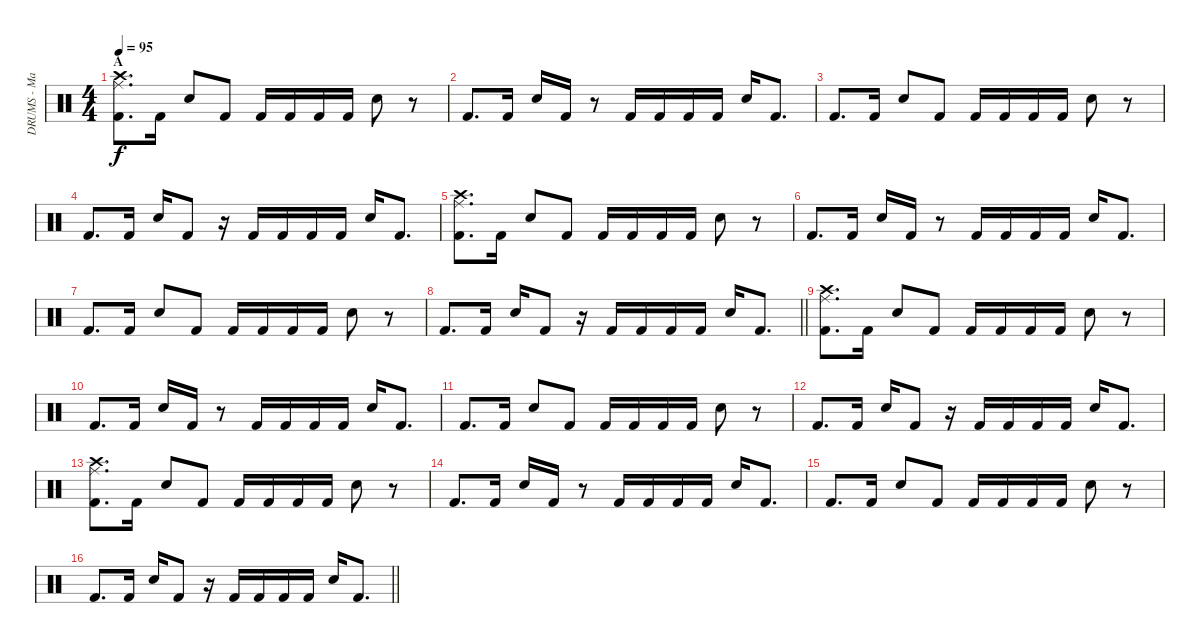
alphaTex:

\track ("DRUMS - Mario Duplantier" "DRUMS - Ma") {instrument percussion}
\staff {score}
\articulation defaults
\ts (4 4)
\section ("" "A")
\tempo 95
\clef neutral
\ks c
("Crash high (hit)" "Ride (middle)" "Kick (hit) 2").8{d dy f} "Kick (hit) 2".16 "Electric Snare (hit)".8 "Kick (hit) 2".8 "Kick (hit) 2".16 "Kick (hit) 2".16 "Kick (hit) 2".16 "Kick (hit) 2".16 "Electric Snare (hit)".8 r.8 |
"Kick (hit) 2".8{d} "Kick (hit) 2".16 "Electric Snare (hit)".16 "Kick (hit) 2".16 r.8 "Kick (hit) 2".16 "Kick (hit) 2".16 "Kick (hit) 2".16 "Kick (hit) 2".16 "Electric Snare (hit)".16 "Kick (hit) 2".8{d} |
"Kick (hit) 2".8{d} "Kick (hit) 2".16 "Electric Snare (hit)".8 "Kick (hit) 2".8 "Kick (hit) 2".16 "Kick (hit) 2".16 "Kick (hit) 2".16 "Kick (hit) 2".16 "Electric Snare (hit)".8 r.8 |
"Kick (hit) 2".8{d} "Kick (hit) 2".16 "Electric Snare (hit)".16 "Kick (hit) 2".8 r.16 "Kick (hit) 2".16 "Kick (hit) 2".16 "Kick (hit) 2".16 "Kick (hit) 2".16 "Electric Snare (hit)".16 "Kick (hit) 2".8{d} |
("Crash high (hit)" "Ride (middle)" "Kick (hit) 2").8{d} "Kick (hit) 2".16 "Electric Snare (hit)".8 "Kick (hit) 2".8 "Kick (hit) 2".16 "Kick (hit) 2".16 "Kick (hit) 2".16 "Kick (hit) 2".16 "Electric Snare (hit)".8 r.8 |
"Kick (hit) 2".8{d} "Kick (hit) 2".16 "Electric Snare (hit)".16 "Kick (hit) 2".16 r.8 "Kick (hit) 2".16 "Kick (hit) 2".16 "Kick (hit) 2".16 "Kick (hit) 2".16 "Electric Snare (hit)".16 "Kick (hit) 2".8{d} |
"Kick (hit) 2".8{d} "Kick (hit) 2".16 "Electric Snare (hit)".8 "Kick (hit) 2".8 "Kick (hit) 2".16 "Kick (hit) 2".16 "Kick (hit) 2".16 "Kick (hit) 2".16 "Electric Snare (hit)".8 r.8 |
\barLineRight lightlight "Kick (hit) 2".8{d} "Kick (hit) 2".16 "Electric Snare (hit)".16 "Kick (hit) 2".8
r.16 "Kick (hit) 2".16 "Kick (hit) 2".16 "Kick (hit) 2".16 "Kick (hit) 2".16 "Electric Snare (hit)".16 "Kick (hit) 2".8{d} |
("Crash high (hit)" "Ride (middle)" "Kick (hit) 2").8{d} "Kick (hit) 2".16 "Electric Snare (hit)".8 "Kick (hit) 2".8 "Kick (hit) 2".16 "Kick (hit) 2".16 "Kick (hit) 2".16 "Kick (hit) 2".16 "Electric Snare (hit)".8 r.8 |
"Kick (hit) 2".8{d} "Kick (hit) 2".16 "Electric Snare (hit)".16 "Kick (hit) 2".16 r.8 "Kick (hit) 2".16 "Kick (hit) 2".16 "Kick (hit) 2".16 "Kick (hit) 2".16 "Electric Snare (hit)".16 "Kick (hit) 2".8{d} |
"Kick (hit) 2".8{d} "Kick (hit) 2".16 "Electric Snare (hit)".8 "Kick (hit) 2".8 "Kick (hit) 2".16 "Kick (hit) 2".16 "Kick (hit) 2".16 "Kick (hit) 2".16 "Electric Snare (hit)".8 r.8 |
"Kick (hit) 2".8{d} "Kick (hit) 2".16 "Electric Snare (hit)".16 "Kick (hit) 2".8 r.16 "Kick (hit) 2".16 "Kick (hit) 2".16 "Kick (hit) 2".16 "Kick (hit) 2".16 "Electric Snare (hit)".16 "Kick (hit) 2".8{d} |
("Crash high (hit)" "Ride (middle)" "Kick (hit) 2").8{d} "Kick (hit) 2".16 "Electric Snare (hit)".8 "Kick (hit) 2".8 "Kick (hit) 2".16 "Kick (hit) 2".16 "Kick (hit) 2".16 "Kick (hit) 2".16 "Electric Snare (hit)".8 r.8 |
"Kick (hit) 2".8{d} "Kick (hit) 2".16 "Electric Snare (hit)".16 "Kick (hit) 2".16 r.8 "Kick (hit) 2".16 "Kick (hit) 2".16 "Kick (hit) 2".16 "Kick (hit) 2".16 "Electric Snare (hit)".16 "Kick (hit) 2".8{d} |
"Kick (hit) 2".8{d} "Kick (hit) 2".16 "Electric Snare (hit)".8 "Kick (hit) 2".8 "Kick (hit) 2".16 "Kick (hit) 2".16 "Kick (hit) 2".16 "Kick (hit) 2".16 "Electric Snare (hit)".8 r.8 |
\barLineRight lightlight "Kick (hit) 2".8{d} "Kick (hit) 2".16 "Electric Snare (hit)".16 "Kick (hit) 2".8
r.16 "Kick (hit) 2".16 "Kick (hit) 2".16 "Kick (hit) 2".16 "Kick (hit) 2".16 "Electric Snare (hit)".16 "Kick (hit) 2".8{d}
